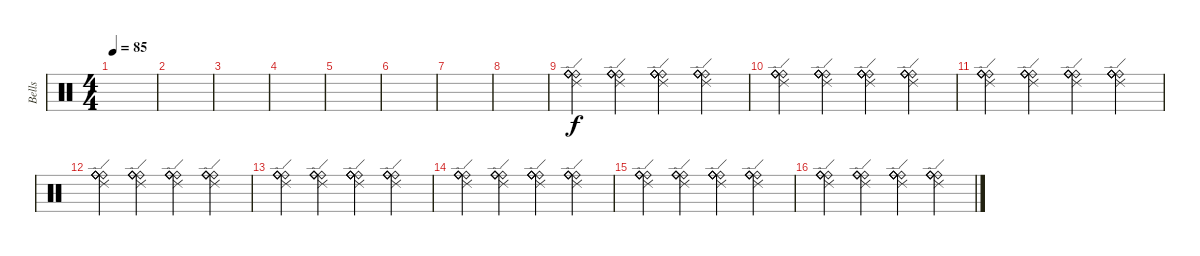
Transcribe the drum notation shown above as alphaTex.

\track ("Bells" "Bells") {instrument percussion}
\staff {score}
\articulation defaults
\ts (4 4)
\tempo 85
\clef neutral
\ks c
|
|
|
|
|
|
|
|
("Ride (bell)" "Ride (bell)" "Ride (bell)" "Ride (bell)" "Ride (edge) 2").4 ("Ride (bell)" "Ride (bell)" "Ride (bell)" "Ride (bell)" "Ride (edge) 2").4 ("Ride (bell)" "Ride (bell)" "Ride (bell)" "Ride (bell)" "Ride (edge) 2").4 ("Ride (bell)" "Ride (bell)" "Ride (bell)" "Ride (bell)" "Ride (edge) 2").4 |
("Ride (bell)" "Ride (bell)" "Ride (bell)" "Ride (bell)" "Ride (edge) 2").4 ("Ride (bell)" "Ride (bell)" "Ride (bell)" "Ride (bell)" "Ride (edge) 2").4 ("Ride (bell)" "Ride (bell)" "Ride (bell)" "Ride (bell)" "Ride (edge) 2").4 ("Ride (bell)" "Ride (bell)" "Ride (bell)" "Ride (bell)" "Ride (edge) 2").4 |
("Ride (bell)" "Ride (bell)" "Ride (bell)" "Ride (bell)" "Ride (edge) 2").4 ("Ride (bell)" "Ride (bell)" "Ride (bell)" "Ride (bell)" "Ride (edge) 2").4 ("Ride (bell)" "Ride (bell)" "Ride (bell)" "Ride (bell)" "Ride (edge) 2").4 ("Ride (bell)" "Ride (bell)" "Ride (bell)" "Ride (bell)" "Ride (edge) 2").4 |
("Ride (bell)" "Ride (bell)" "Ride (bell)" "Ride (bell)" "Ride (edge) 2").4 ("Ride (bell)" "Ride (bell)" "Ride (bell)" "Ride (bell)" "Ride (edge) 2").4 ("Ride (bell)" "Ride (bell)" "Ride (bell)" "Ride (bell)" "Ride (edge) 2").4 ("Ride (bell)" "Ride (bell)" "Ride (bell)" "Ride (bell)" "Ride (edge) 2").4 |
("Ride (bell)" "Ride (bell)" "Ride (bell)" "Ride (bell)" "Ride (edge) 2").4 ("Ride (bell)" "Ride (bell)" "Ride (bell)" "Ride (bell)" "Ride (edge) 2").4 ("Ride (bell)" "Ride (bell)" "Ride (bell)" "Ride (bell)" "Ride (edge) 2").4 ("Ride (bell)" "Ride (bell)" "Ride (bell)" "Ride (bell)" "Ride (edge) 2").4 |
("Ride (bell)" "Ride (bell)" "Ride (bell)" "Ride (bell)" "Ride (edge) 2").4 ("Ride (bell)" "Ride (bell)" "Ride (bell)" "Ride (bell)" "Ride (edge) 2").4 ("Ride (bell)" "Ride (bell)" "Ride (bell)" "Ride (bell)" "Ride (edge) 2").4 ("Ride (bell)" "Ride (bell)" "Ride (bell)" "Ride (bell)" "Ride (edge) 2").4 |
("Ride (bell)" "Ride (bell)" "Ride (bell)" "Ride (bell)" "Ride (edge) 2").4 ("Ride (bell)" "Ride (bell)" "Ride (bell)" "Ride (bell)" "Ride (edge) 2").4 ("Ride (bell)" "Ride (bell)" "Ride (bell)" "Ride (bell)" "Ride (edge) 2").4 ("Ride (bell)" "Ride (bell)" "Ride (bell)" "Ride (bell)" "Ride (edge) 2").4 |
("Ride (bell)" "Ride (bell)" "Ride (bell)" "Ride (bell)" "Ride (edge) 2").4 ("Ride (bell)" "Ride (bell)" "Ride (bell)" "Ride (bell)" "Ride (edge) 2").4 ("Ride (bell)" "Ride (bell)" "Ride (bell)" "Ride (bell)" "Ride (edge) 2").4 ("Ride (bell)" "Ride (bell)" "Ride (bell)" "Ride (bell)" "Ride (edge) 2").4
